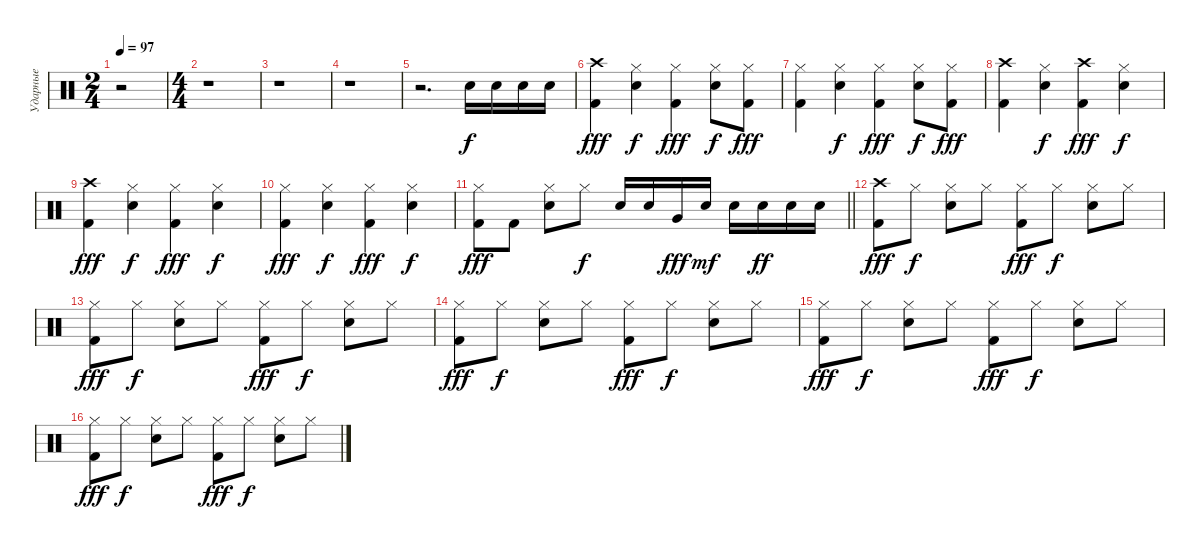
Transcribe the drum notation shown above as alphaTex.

\track ("Ударные" "Ударные") {instrument percussion}
\staff {score}
\articulation defaults
\ts (2 4)
\tempo 97
\clef neutral
\ks c
r.2{dy f} |
\ts (4 4)
r.1 |
r.1 |
r.1 |
r.2{d} "Electric Snare (hit)".16 "Electric Snare (hit)".16 "Electric Snare (hit)".16 "Electric Snare (hit)".16 |
("Kick (hit) 2" "Crash high (hit)").4{dy fff} ("Snare (hit) 2" "Hi-Hat (closed)").4{dy f} ("Kick (hit) 2" "Hi-Hat (closed)").4{dy fff} ("Snare (hit) 2" "Hi-Hat (closed)").8{dy f} ("Kick (hit) 2" "Hi-Hat (closed)").8{dy fff} |
("Kick (hit) 2" "Hi-Hat (closed)").4 ("Snare (hit) 2" "Hi-Hat (closed)").4{dy f} ("Kick (hit) 2" "Hi-Hat (closed)").4{dy fff} ("Snare (hit) 2" "Hi-Hat (closed)").8{dy f} ("Kick (hit) 2" "Hi-Hat (closed)").8{dy fff} |
("Kick (hit) 2" "Crash high (hit)").4 ("Snare (hit) 2" "Hi-Hat (closed)").4{dy f} ("Kick (hit) 2" "Crash high (hit)").4{dy fff} ("Snare (hit) 2" "Hi-Hat (closed)").4{dy f} |
("Kick (hit) 2" "Crash high (hit)").4{dy fff} ("Snare (hit) 2" "Hi-Hat (closed)").4{dy f} ("Kick (hit) 2" "Hi-Hat (closed)").4{dy fff} ("Snare (hit) 2" "Hi-Hat (closed)").4{dy f} |
("Kick (hit) 2" "Hi-Hat (closed)").4{dy fff} ("Snare (hit) 2" "Hi-Hat (closed)").4{dy f} ("Kick (hit) 2" "Hi-Hat (closed)").4{dy fff} ("Snare (hit) 2" "Hi-Hat (closed)").4{dy f} |
\barLineRight lightlight
("Kick (hit) 2" "Hi-Hat (closed)").8{dy fff} "Kick (hit) 2".8 ("Snare (hit) 2" "Hi-Hat (closed)").8 "Hi-Hat (closed)".8{dy f} "Snare (hit) 2".16 "Snare (hit) 2".16 "Very Low Tom (hit)".16{dy fff} "Snare (hit) 2".16{dy mf} "Snare (hit) 2".16 "Electric Snare (hit)".16{dy ff} "Electric Snare (hit)".16 "Electric Snare (hit)".16 |
("Kick (hit) 2" "Crash high (hit)").8{dy fff} "Hi-Hat (closed)".8{dy f} ("Snare (hit) 2" "Hi-Hat (closed)").8 "Hi-Hat (closed)".8 ("Kick (hit) 2" "Hi-Hat (closed)").8{dy fff} "Hi-Hat (closed)".8{dy f} ("Snare (hit) 2" "Hi-Hat (closed)").8 "Hi-Hat (closed)".8 |
("Kick (hit) 2" "Hi-Hat (closed)").8{dy fff} "Hi-Hat (closed)".8{dy f} ("Snare (hit) 2" "Hi-Hat (closed)").8 "Hi-Hat (closed)".8 ("Kick (hit) 2" "Hi-Hat (closed)").8{dy fff} "Hi-Hat (closed)".8{dy f} ("Snare (hit) 2" "Hi-Hat (closed)").8 "Hi-Hat (closed)".8 |
("Kick (hit) 2" "Hi-Hat (closed)").8{dy fff} "Hi-Hat (closed)".8{dy f} ("Snare (hit) 2" "Hi-Hat (closed)").8 "Hi-Hat (closed)".8 ("Kick (hit) 2" "Hi-Hat (closed)").8{dy fff} "Hi-Hat (closed)".8{dy f} ("Snare (hit) 2" "Hi-Hat (closed)").8 "Hi-Hat (closed)".8 |
("Kick (hit) 2" "Hi-Hat (closed)").8{dy fff} "Hi-Hat (closed)".8{dy f} ("Snare (hit) 2" "Hi-Hat (closed)").8 "Hi-Hat (closed)".8 ("Kick (hit) 2" "Hi-Hat (closed)").8{dy fff} "Hi-Hat (closed)".8{dy f} ("Snare (hit) 2" "Hi-Hat (closed)").8 "Hi-Hat (closed)".8 |
("Kick (hit) 2" "Hi-Hat (closed)").8{dy fff} "Hi-Hat (closed)".8{dy f} ("Snare (hit) 2" "Hi-Hat (closed)").8 "Hi-Hat (closed)".8 ("Kick (hit) 2" "Hi-Hat (closed)").8{dy fff} "Hi-Hat (closed)".8{dy f} ("Snare (hit) 2" "Hi-Hat (closed)").8 "Hi-Hat (closed)".8
